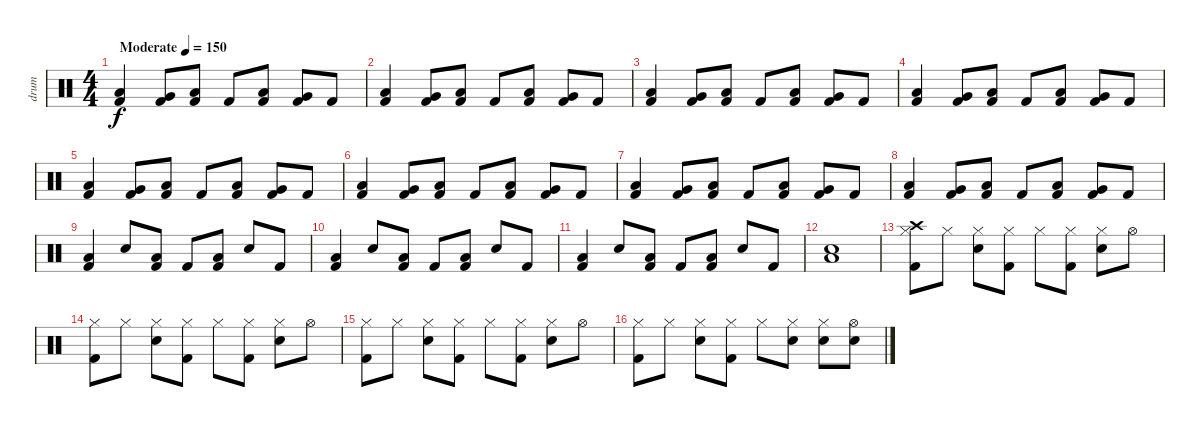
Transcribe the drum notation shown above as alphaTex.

\track ("drum" "drum") {instrument percussion}
\staff {score}
\articulation defaults
\ts (4 4)
\tempo (150 "Moderate")
\clef neutral
\ks c
("Kick (hit) 2" "Low Floor Tom (hit)").4{dy f} ("Kick (hit) 2" "Very Low Tom (hit)").8 ("Kick (hit) 2" "Low Floor Tom (hit)").8 "Kick (hit) 2".8 ("Kick (hit) 2" "Low Floor Tom (hit)").8 ("Kick (hit) 2" "Very Low Tom (hit)").8 "Kick (hit) 2".8 |
("Kick (hit) 2" "Low Floor Tom (hit)").4 ("Kick (hit) 2" "Very Low Tom (hit)").8 ("Kick (hit) 2" "Low Floor Tom (hit)").8 "Kick (hit) 2".8 ("Kick (hit) 2" "Low Floor Tom (hit)").8 ("Kick (hit) 2" "Very Low Tom (hit)").8 "Kick (hit) 2".8 |
("Kick (hit) 2" "Low Floor Tom (hit)").4 ("Kick (hit) 2" "Very Low Tom (hit)").8 ("Kick (hit) 2" "Low Floor Tom (hit)").8 "Kick (hit) 2".8 ("Kick (hit) 2" "Low Floor Tom (hit)").8 ("Kick (hit) 2" "Very Low Tom (hit)").8 "Kick (hit) 2".8 |
("Kick (hit) 2" "Low Floor Tom (hit)").4 ("Kick (hit) 2" "Very Low Tom (hit)").8 ("Kick (hit) 2" "Low Floor Tom (hit)").8 "Kick (hit) 2".8 ("Kick (hit) 2" "Low Floor Tom (hit)").8 ("Kick (hit) 2" "Very Low Tom (hit)").8 "Kick (hit) 2".8 |
("Kick (hit) 2" "Low Floor Tom (hit)").4 ("Kick (hit) 2" "Very Low Tom (hit)").8 ("Kick (hit) 2" "Low Floor Tom (hit)").8 "Kick (hit) 2".8 ("Kick (hit) 2" "Low Floor Tom (hit)").8 ("Kick (hit) 2" "Very Low Tom (hit)").8 "Kick (hit) 2".8 |
("Kick (hit) 2" "Low Floor Tom (hit)").4 ("Kick (hit) 2" "Very Low Tom (hit)").8 ("Kick (hit) 2" "Low Floor Tom (hit)").8 "Kick (hit) 2".8 ("Kick (hit) 2" "Low Floor Tom (hit)").8 ("Kick (hit) 2" "Very Low Tom (hit)").8 "Kick (hit) 2".8 |
("Kick (hit) 2" "Low Floor Tom (hit)").4 ("Kick (hit) 2" "Very Low Tom (hit)").8 ("Kick (hit) 2" "Low Floor Tom (hit)").8 "Kick (hit) 2".8 ("Kick (hit) 2" "Low Floor Tom (hit)").8 ("Kick (hit) 2" "Very Low Tom (hit)").8 "Kick (hit) 2".8 |
("Kick (hit) 2" "Low Floor Tom (hit)").4 ("Kick (hit) 2" "Very Low Tom (hit)").8 ("Kick (hit) 2" "Low Floor Tom (hit)").8 "Kick (hit) 2".8 ("Kick (hit) 2" "Low Floor Tom (hit)").8 ("Kick (hit) 2" "Very Low Tom (hit)").8 "Kick (hit) 2".8 |
("Kick (hit) 2" "Low Floor Tom (hit)").4 "Electric Snare (hit)".8 ("Kick (hit) 2" "Low Floor Tom (hit)").8 "Kick (hit) 2".8 ("Kick (hit) 2" "Low Floor Tom (hit)").8 "Electric Snare (hit)".8 "Kick (hit) 2".8 |
("Kick (hit) 2" "Low Floor Tom (hit)").4 "Electric Snare (hit)".8 ("Kick (hit) 2" "Low Floor Tom (hit)").8 "Kick (hit) 2".8 ("Kick (hit) 2" "Low Floor Tom (hit)").8 "Electric Snare (hit)".8 "Kick (hit) 2".8 |
("Kick (hit) 2" "Low Floor Tom (hit)").4 "Electric Snare (hit)".8 ("Kick (hit) 2" "Low Floor Tom (hit)").8 "Kick (hit) 2".8 ("Kick (hit) 2" "Low Floor Tom (hit)").8 "Electric Snare (hit)".8 "Kick (hit) 2".8 |
("Electric Snare (hit)" "Low Floor Tom (hit)").1 |
("Crash high (hit)" "Hi-Hat (closed)" "Kick (hit) 2").8 "Hi-Hat (closed)".8 ("Hi-Hat (closed)" "Electric Snare (hit)").8 ("Hi-Hat (closed)" "Kick (hit) 2").8 "Hi-Hat (closed)".8 ("Hi-Hat (closed)" "Kick (hit) 2").8 ("Hi-Hat (closed)" "Electric Snare (hit)").8 "Hi-Hat (open)".8 |
("Hi-Hat (closed)" "Kick (hit) 2").8 "Hi-Hat (closed)".8 ("Hi-Hat (closed)" "Electric Snare (hit)").8 ("Hi-Hat (closed)" "Kick (hit) 2").8 "Hi-Hat (closed)".8 ("Hi-Hat (closed)" "Kick (hit) 2").8 ("Hi-Hat (closed)" "Electric Snare (hit)").8 "Hi-Hat (open)".8 |
("Hi-Hat (closed)" "Kick (hit) 2").8 "Hi-Hat (closed)".8 ("Hi-Hat (closed)" "Electric Snare (hit)").8 ("Hi-Hat (closed)" "Kick (hit) 2").8 "Hi-Hat (closed)".8 ("Hi-Hat (closed)" "Kick (hit) 2").8 ("Hi-Hat (closed)" "Electric Snare (hit)").8 "Hi-Hat (open)".8 |
("Hi-Hat (closed)" "Kick (hit) 2").8 "Hi-Hat (closed)".8 ("Hi-Hat (closed)" "Electric Snare (hit)").8 ("Hi-Hat (closed)" "Kick (hit) 2").8 "Hi-Hat (closed)".8 ("Hi-Hat (closed)" "Electric Snare (hit)").8 ("Hi-Hat (closed)" "Electric Snare (hit)").8 ("Hi-Hat (open)" "Electric Snare (hit)").8
